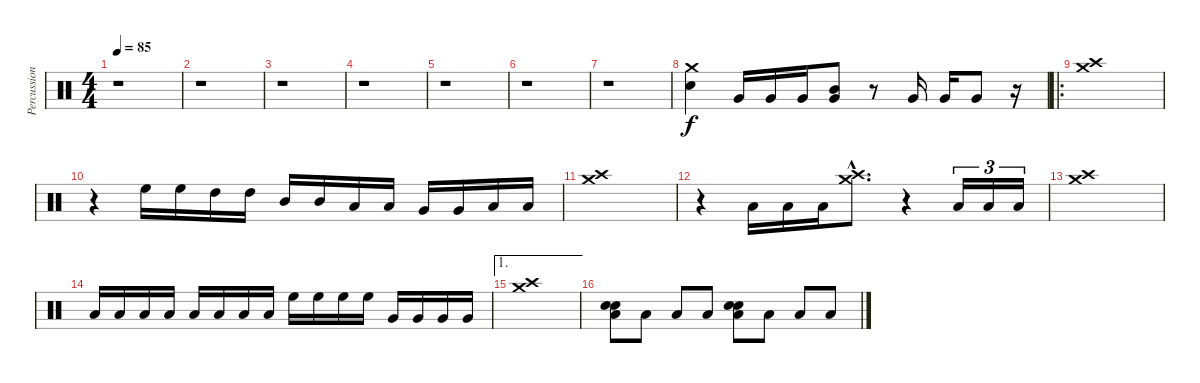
\track ("Percussions" "Percussion") {instrument percussion}
\staff {score}
\articulation defaults
\ts (4 4)
\tempo 85
\clef neutral
\ks c
r.1{dy f} |
r.1 |
r.1 |
r.1 |
r.1 |
r.1 |
r.1 |
("Crash medium (hit)" "Snare (hit) 2").4 "Very Low Tom (hit)".16 "Very Low Tom (hit)".16 "Very Low Tom (hit)".16 ("Very Low Tom (hit)" "Mid Tom (hit)").8 r.8 "Very Low Tom (hit)".16 "Very Low Tom (hit)".16 "Very Low Tom (hit)".8 r.16 |
\ro
("Crash medium (hit)" "Crash high (hit)").1 |
r.4 "High Floor Tom (hit)".16 "High Floor Tom (hit)".16 "High Tom (hit)".16 "High Tom (hit)".16 "Mid Tom (hit)".16 "Mid Tom (hit)".16 "Low Tom (hit)".16 "Low Tom (hit)".16 "Very Low Tom (hit)".16 "Very Low Tom (hit)".16 "Low Floor Tom (hit)".16 "Low Floor Tom (hit)".16 |
("Crash medium (hit)" "Crash high (hit)").1 |
r.4 "Low Floor Tom (hit)".16 "Low Floor Tom (hit)".16 "Low Floor Tom (hit)".16 ("Crash high (hit)"{hac} "Crash medium (hit)"{hac}).8{d} r.4 "Low Floor Tom (hit)".16{tu (3 2)} "Low Floor Tom (hit)".16{tu (3 2)} "Low Floor Tom (hit)".16{tu (3 2)} |
("Crash medium (hit)" "Crash high (hit)").1 |
"Low Tom (hit)".16 "Low Tom (hit)".16 "Low Tom (hit)".16 "Low Tom (hit)".16 "Low Floor Tom (hit)".16 "Low Floor Tom (hit)".16 "Low Floor Tom (hit)".16 "Low Floor Tom (hit)".16 "High Floor Tom (hit)".16 "High Floor Tom (hit)".16 "High Floor Tom (hit)".16 "High Floor Tom (hit)".16 "Very Low Tom (hit)".16 "Very Low Tom (hit)".16 "Very Low Tom (hit)".16 "Very Low Tom (hit)".16 |
\ae 1
("Crash medium (hit)" "Crash high (hit)").1 |
("Snare (hit) 2" "Hand Clap (hit)" "Low Floor Tom (hit)").8 "Low Floor Tom (hit)".8 "Low Floor Tom (hit)".8 "Low Floor Tom (hit)".8 ("Snare (hit) 2" "Hand Clap (hit)" "Low Floor Tom (hit)").8 "Low Floor Tom (hit)".8 "Low Floor Tom (hit)".8 "Low Floor Tom (hit)".8
